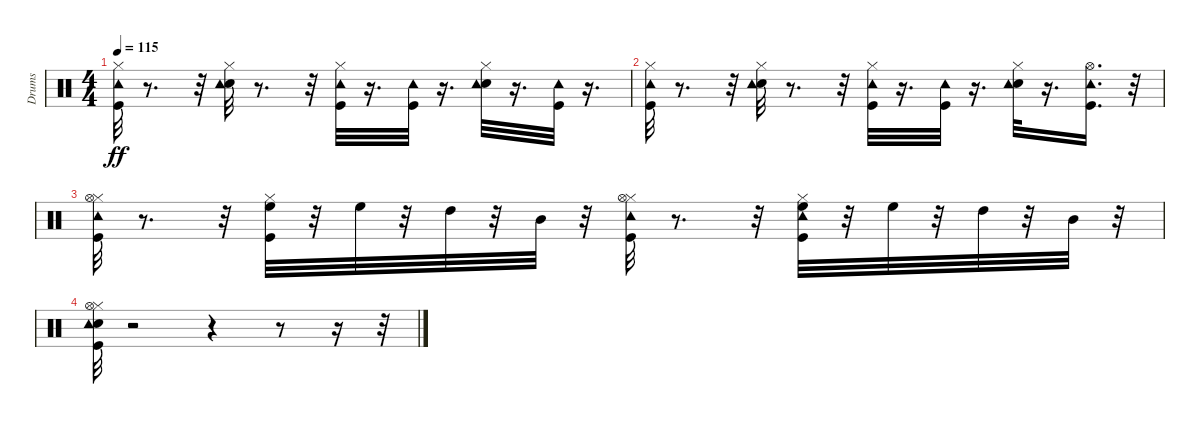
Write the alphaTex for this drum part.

\track ("Drums" "Drums") {instrument percussion}
\staff {score}
\articulation defaults
\ts (4 4)
\tempo 115
\clef neutral
\ks c
("Hi-Hat (closed)" "Kick (hit)" "Tambourine (hit)").32{dy ff} r.8{d} r.32 ("Hi-Hat (closed)" "Snare (hit) 2" "Tambourine (hit)").32 r.8{d} r.32 ("Hi-Hat (closed)" "Kick (hit)" "Tambourine (hit)").32 r.16{d} ("Kick (hit)" "Tambourine (hit)").32 r.16{d} ("Hi-Hat (closed)" "Snare (hit) 2" "Tambourine (hit)").32 r.16{d} ("Kick (hit)" "Tambourine (hit)").32 r.16{d} |
("Hi-Hat (closed)" "Kick (hit)" "Tambourine (hit)").32 r.8{d} r.32 ("Hi-Hat (closed)" "Snare (hit) 2" "Tambourine (hit)").32 r.8{d} r.32 ("Hi-Hat (closed)" "Kick (hit)" "Tambourine (hit)").32 r.16{d} ("Kick (hit)" "Tambourine (hit)").32 r.16{d} ("Hi-Hat (closed)" "Snare (hit) 2" "Tambourine (hit)").32 r.16{d} ("Kick (hit)" "Hi-Hat (open)" "Tambourine (hit)").16{d} r.32 |
("Hi-Hat (closed)" "Kick (hit)" "Hi-Hat (open)" "Tambourine (hit)").32 r.8{d} r.32 ("Hi-Hat (closed)" "High Floor Tom (hit)" "Kick (hit)").32 r.32 "High Floor Tom (hit)".32 r.32 "High Tom (hit)".32 r.32 "Mid Tom (hit)".32 r.32 ("Hi-Hat (closed)" "Kick (hit)" "Hi-Hat (open)" "Tambourine (hit)").32 r.8{d} r.32 ("Hi-Hat (closed)" "Kick (hit)" "High Floor Tom (hit)" "Tambourine (hit)").32 r.32 "High Floor Tom (hit)".32 r.32 "High Tom (hit)".32 r.32 "Mid Tom (hit)".32 r.32 |
("Hi-Hat (closed)" "Kick (hit)" "Hi-Hat (open)" "Snare (hit) 2" "Tambourine (hit)").32 r.2 r.4 r.8 r.16 r.32
